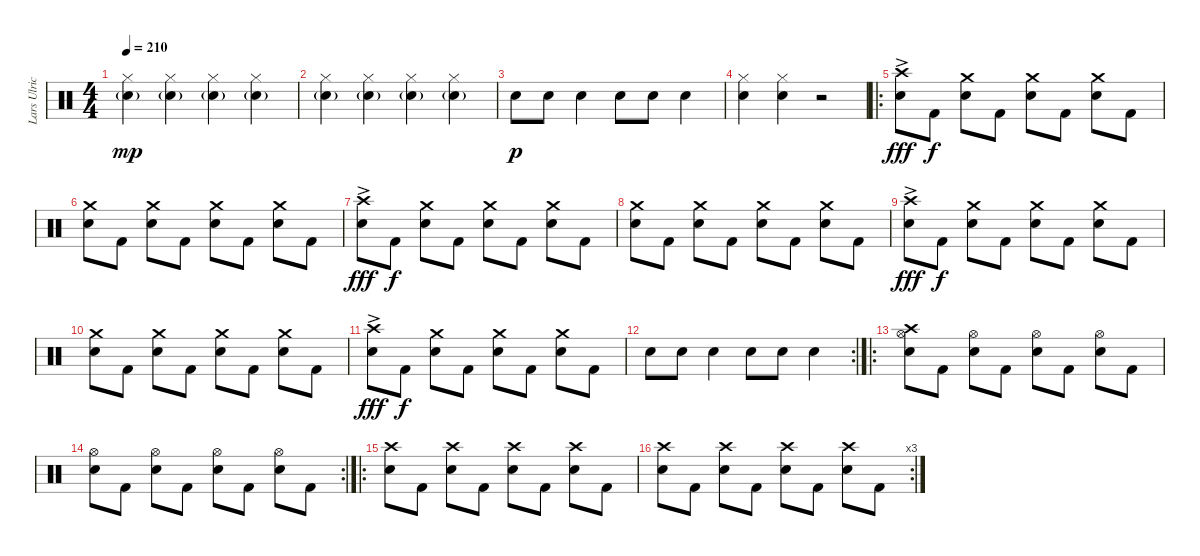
\track ("Lars Ulrich" "Lars Ulric") {instrument percussion}
\staff {score}
\articulation defaults
\ts (4 4)
\tempo 210
\clef neutral
\ks c
("Hi-Hat (closed)" "Snare (hit) 2"{g}).4{dy mp} ("Hi-Hat (closed)" "Snare (hit) 2"{g}).4 ("Hi-Hat (closed)" "Snare (hit) 2"{g}).4 ("Hi-Hat (closed)" "Snare (hit) 2"{g}).4 |
("Hi-Hat (closed)" "Snare (hit) 2"{g}).4 ("Hi-Hat (closed)" "Snare (hit) 2"{g}).4 ("Hi-Hat (closed)" "Snare (hit) 2"{g}).4 ("Hi-Hat (closed)" "Snare (hit) 2"{g}).4 |
"Snare (hit) 2".8{dy p} "Snare (hit) 2".8 "Snare (hit) 2".4 "Snare (hit) 2".8 "Snare (hit) 2".8 "Snare (hit) 2".4 |
("Hi-Hat (closed)" "Snare (hit) 2").4 ("Hi-Hat (closed)" "Snare (hit) 2").4 r.2 |
\ro
("Snare (hit) 2"{ac} "Crash high (hit)"{ac}).8{dy fff} "Kick (hit) 2".8{dy f} ("Crash medium (hit)" "Snare (hit) 2").8 "Kick (hit) 2".8 ("Crash medium (hit)" "Snare (hit) 2").8 "Kick (hit) 2".8 ("Crash medium (hit)" "Snare (hit) 2").8 "Kick (hit) 2".8 |
("Snare (hit) 2" "Crash medium (hit)").8 "Kick (hit) 2".8 ("Snare (hit) 2" "Crash medium (hit)").8 "Kick (hit) 2".8 ("Snare (hit) 2" "Crash medium (hit)").8 "Kick (hit) 2".8 ("Snare (hit) 2" "Crash medium (hit)").8 "Kick (hit) 2".8 |
("Snare (hit) 2"{ac} "Crash high (hit)"{ac}).8{dy fff} "Kick (hit) 2".8{dy f} ("Crash medium (hit)" "Snare (hit) 2").8 "Kick (hit) 2".8 ("Crash medium (hit)" "Snare (hit) 2").8 "Kick (hit) 2".8 ("Crash medium (hit)" "Snare (hit) 2").8 "Kick (hit) 2".8 |
("Snare (hit) 2" "Crash medium (hit)").8 "Kick (hit) 2".8 ("Snare (hit) 2" "Crash medium (hit)").8 "Kick (hit) 2".8 ("Snare (hit) 2" "Crash medium (hit)").8 "Kick (hit) 2".8 ("Snare (hit) 2" "Crash medium (hit)").8 "Kick (hit) 2".8 |
("Snare (hit) 2"{ac} "Crash high (hit)"{ac}).8{dy fff} "Kick (hit) 2".8{dy f} ("Crash medium (hit)" "Snare (hit) 2").8 "Kick (hit) 2".8 ("Crash medium (hit)" "Snare (hit) 2").8 "Kick (hit) 2".8 ("Crash medium (hit)" "Snare (hit) 2").8 "Kick (hit) 2".8 |
("Snare (hit) 2" "Crash medium (hit)").8 "Kick (hit) 2".8 ("Snare (hit) 2" "Crash medium (hit)").8 "Kick (hit) 2".8 ("Snare (hit) 2" "Crash medium (hit)").8 "Kick (hit) 2".8 ("Snare (hit) 2" "Crash medium (hit)").8 "Kick (hit) 2".8 |
("Snare (hit) 2"{ac} "Crash high (hit)"{ac}).8{dy fff} "Kick (hit) 2".8{dy f} ("Crash medium (hit)" "Snare (hit) 2").8 "Kick (hit) 2".8 ("Crash medium (hit)" "Snare (hit) 2").8 "Kick (hit) 2".8 ("Crash medium (hit)" "Snare (hit) 2").8 "Kick (hit) 2".8 |
\rc 2 "Snare (hit) 2".8 "Snare (hit) 2".8 "Snare (hit) 2".4 "Snare (hit) 2".8 "Snare (hit) 2".8 "Snare (hit) 2".4
|
\ro
("Snare (hit) 2" "Hi-Hat (open)" "Crash high (hit)").8 "Kick (hit) 2".8 ("Snare (hit) 2" "Hi-Hat (open)").8 "Kick (hit) 2".8 ("Snare (hit) 2" "Hi-Hat (open)").8 "Kick (hit) 2".8 ("Snare (hit) 2" "Hi-Hat (open)").8 "Kick (hit) 2".8 |
\rc 2
("Hi-Hat (open)" "Snare (hit) 2").8 "Kick (hit) 2".8 ("Hi-Hat (open)" "Snare (hit) 2").8 "Kick (hit) 2".8 ("Hi-Hat (open)" "Snare (hit) 2").8 "Kick (hit) 2".8 ("Hi-Hat (open)" "Snare (hit) 2").8 "Kick (hit) 2".8 |
\ro
("Snare (hit) 2" "Crash high (hit)").8 "Kick (hit) 2".8 ("Snare (hit) 2" "Crash high (hit)").8 "Kick (hit) 2".8 ("Snare (hit) 2" "Crash high (hit)").8 "Kick (hit) 2".8 ("Snare (hit) 2" "Crash high (hit)").8 "Kick (hit) 2".8 |
\rc 3
("Crash high (hit)" "Snare (hit) 2").8 "Kick (hit) 2".8 ("Crash high (hit)" "Snare (hit) 2").8 "Kick (hit) 2".8 ("Crash high (hit)" "Snare (hit) 2").8 "Kick (hit) 2".8 ("Crash high (hit)" "Snare (hit) 2").8 "Kick (hit) 2".8
